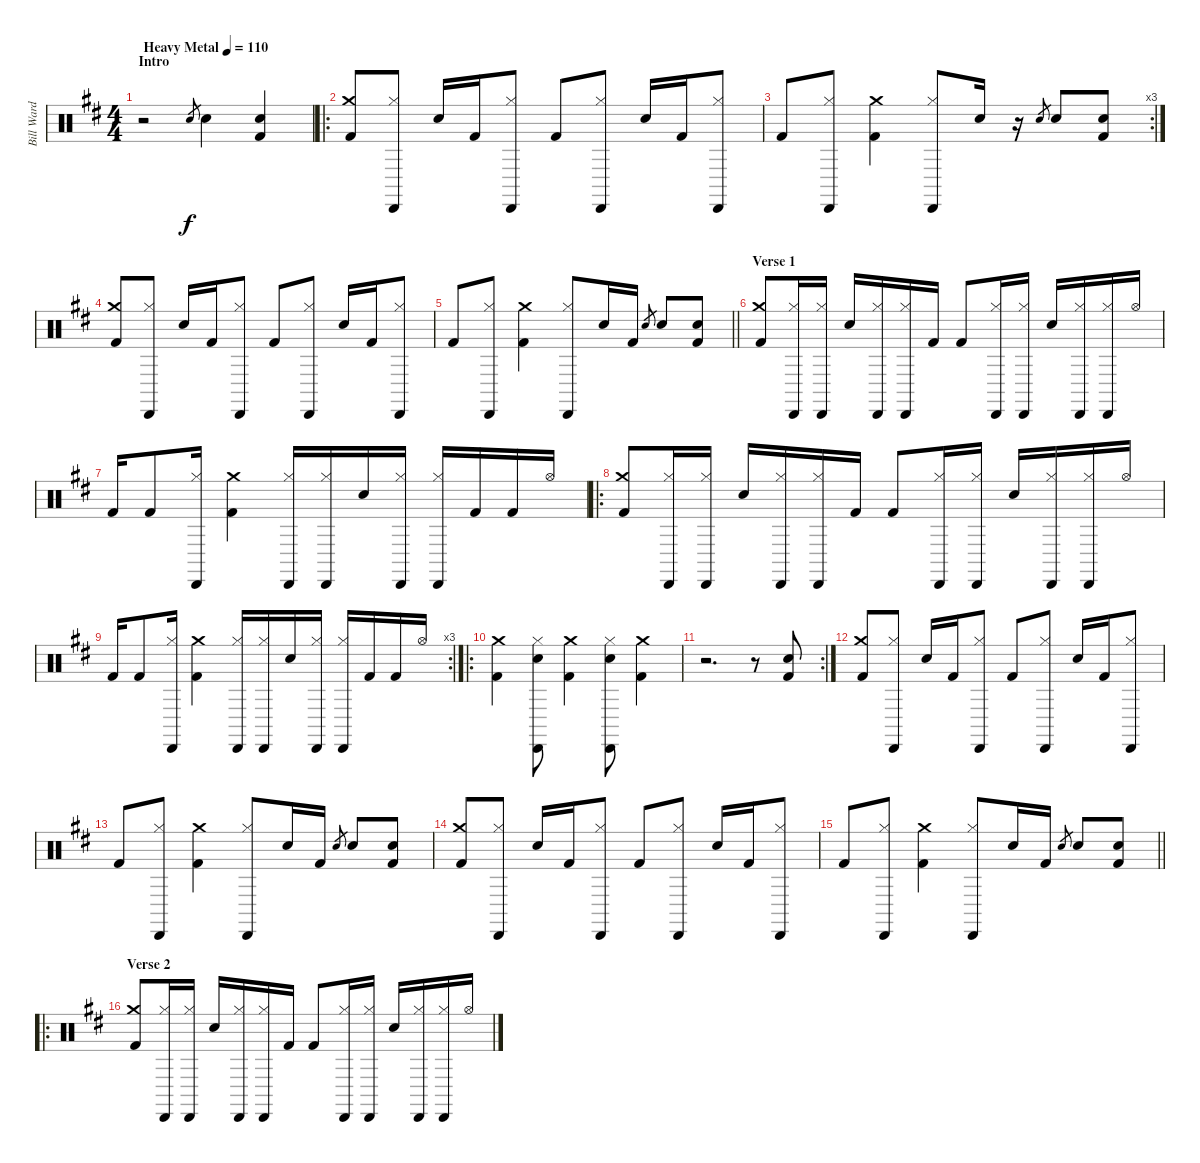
\track ("Bill Ward" "Bill Ward") {instrument percussion}
\staff {score}
\articulation defaults
\ts (4 4)
\section ("" "Intro")
\tempo (110 "Heavy Metal")
\clef neutral
\ks d
r.2{dy f} "Electric Snare (hit)".8{gr} "Electric Snare (hit)".4 ("Snare (hit) 2" "Kick (hit) 2").4 |
\ro
("Crash medium (hit)" "Kick (hit) 2").8 ("Cabasa (hit)" "Hi-Hat (closed)").8 "Snare (hit) 2".16 "Kick (hit) 2".16 ("Cabasa (hit)" "Hi-Hat (closed)").8 "Kick (hit) 2".8 ("Cabasa (hit)" "Hi-Hat (closed)").8 "Snare (hit) 2".16 "Kick (hit) 2".16 ("Cabasa (hit)" "Hi-Hat (closed)").8 |
\rc 3 "Kick (hit) 2".8
("Cabasa (hit)" "Hi-Hat (closed)").8 ("Crash medium (hit)" "Kick (hit) 2").4 ("Cabasa (hit)" "Hi-Hat (closed)").8 "Snare (hit) 2".16 r.16 "Electric Snare (hit)".8{gr} "Electric Snare (hit)".8 ("Snare (hit) 2" "Kick (hit) 2").8 |
("Crash medium (hit)" "Kick (hit) 2").8 ("Cabasa (hit)" "Hi-Hat (closed)").8 "Snare (hit) 2".16 "Kick (hit) 2".16 ("Cabasa (hit)" "Hi-Hat (closed)").8 "Kick (hit) 2".8 ("Cabasa (hit)" "Hi-Hat (closed)").8 "Snare (hit) 2".16 "Kick (hit) 2".16 ("Cabasa (hit)" "Hi-Hat (closed)").8 |
\barLineRight lightlight "Kick (hit) 2".8
("Cabasa (hit)" "Hi-Hat (closed)").8 ("Crash medium (hit)" "Kick (hit) 2").4 ("Cabasa (hit)" "Hi-Hat (closed)").8 "Snare (hit) 2".16 "Kick (hit) 2".16 "Electric Snare (hit)".8{gr} "Electric Snare (hit)".8 ("Snare (hit) 2" "Kick (hit) 2").8 |
\section ("" "Verse 1")
("Crash medium (hit)" "Kick (hit) 2").8 ("Cabasa (hit)" "Hi-Hat (closed)").16 ("Cabasa (hit)" "Hi-Hat (closed)").16 "Snare (hit) 2".16 ("Cabasa (hit)" "Hi-Hat (closed)").16 ("Cabasa (hit)" "Hi-Hat (closed)").16 "Kick (hit) 2".16 "Kick (hit) 2".8 ("Cabasa (hit)" "Hi-Hat (closed)").16 ("Cabasa (hit)" "Hi-Hat (closed)").16 "Snare (hit) 2".16 ("Cabasa (hit)" "Hi-Hat (closed)").16 ("Cabasa (hit)" "Hi-Hat (closed)").16 "Hi-Hat (open)".16 |
"Kick (hit) 2".16 "Kick (hit) 2".8 ("Cabasa (hit)" "Hi-Hat (closed)").16 ("Crash medium (hit)" "Kick (hit) 2").4 ("Cabasa (hit)" "Hi-Hat (closed)").16 ("Cabasa (hit)" "Hi-Hat (closed)").16 "Snare (hit) 2".16 ("Cabasa (hit)" "Hi-Hat (closed)").16 ("Cabasa (hit)" "Hi-Hat (closed)").16 "Kick (hit) 2".16 "Kick (hit) 2".16 "Hi-Hat (open)".16 |
\ro
("Crash medium (hit)" "Kick (hit) 2").8 ("Cabasa (hit)" "Hi-Hat (closed)").16 ("Cabasa (hit)" "Hi-Hat (closed)").16 "Snare (hit) 2".16 ("Cabasa (hit)" "Hi-Hat (closed)").16 ("Cabasa (hit)" "Hi-Hat (closed)").16 "Kick (hit) 2".16 "Kick (hit) 2".8 ("Cabasa (hit)" "Hi-Hat (closed)").16 ("Cabasa (hit)" "Hi-Hat (closed)").16 "Snare (hit) 2".16 ("Cabasa (hit)" "Hi-Hat (closed)").16 ("Cabasa (hit)" "Hi-Hat (closed)").16 "Hi-Hat (open)".16 |
\rc 3 "Kick (hit) 2".16 "Kick (hit) 2".8
("Cabasa (hit)" "Hi-Hat (closed)").16 ("Crash medium (hit)" "Kick (hit) 2").4 ("Cabasa (hit)" "Hi-Hat (closed)").16 ("Cabasa (hit)" "Hi-Hat (closed)").16 "Snare (hit) 2".16 ("Cabasa (hit)" "Hi-Hat (closed)").16 ("Cabasa (hit)" "Hi-Hat (closed)").16 "Kick (hit) 2".16 "Kick (hit) 2".16 "Hi-Hat (open)".16 |
\ro
("Crash medium (hit)" "Kick (hit) 2").4 ("Cabasa (hit)" "Hi-Hat (closed)" "Snare (hit) 2").8 ("Crash medium (hit)" "Kick (hit) 2").4 ("Cabasa (hit)" "Hi-Hat (closed)" "Snare (hit) 2").8 ("Crash medium (hit)" "Kick (hit) 2").4 |
\rc 2
r.2{d} r.8 ("Snare (hit) 2" "Kick (hit) 2").8 |
("Crash medium (hit)" "Kick (hit) 2").8 ("Cabasa (hit)" "Hi-Hat (closed)").8 "Snare (hit) 2".16 "Kick (hit) 2".16 ("Cabasa (hit)" "Hi-Hat (closed)").8 "Kick (hit) 2".8 ("Cabasa (hit)" "Hi-Hat (closed)").8 "Snare (hit) 2".16 "Kick (hit) 2".16 ("Cabasa (hit)" "Hi-Hat (closed)").8 |
"Kick (hit) 2".8 ("Cabasa (hit)" "Hi-Hat (closed)").8 ("Crash medium (hit)" "Kick (hit) 2").4 ("Cabasa (hit)" "Hi-Hat (closed)").8 "Snare (hit) 2".16 "Kick (hit) 2".16 "Electric Snare (hit)".8{gr} "Electric Snare (hit)".8 ("Snare (hit) 2" "Kick (hit) 2").8 |
("Crash medium (hit)" "Kick (hit) 2").8 ("Cabasa (hit)" "Hi-Hat (closed)").8 "Snare (hit) 2".16 "Kick (hit) 2".16 ("Cabasa (hit)" "Hi-Hat (closed)").8 "Kick (hit) 2".8 ("Cabasa (hit)" "Hi-Hat (closed)").8 "Snare (hit) 2".16 "Kick (hit) 2".16 ("Cabasa (hit)" "Hi-Hat (closed)").8 |
\barLineRight lightlight "Kick (hit) 2".8
("Cabasa (hit)" "Hi-Hat (closed)").8 ("Crash medium (hit)" "Kick (hit) 2").4 ("Cabasa (hit)" "Hi-Hat (closed)").8 "Snare (hit) 2".16 "Kick (hit) 2".16 "Electric Snare (hit)".8{gr} "Electric Snare (hit)".8 ("Snare (hit) 2" "Kick (hit) 2").8 |
\ro
\section ("" "Verse 2")
("Crash medium (hit)" "Kick (hit) 2").8 ("Cabasa (hit)" "Hi-Hat (closed)").16 ("Cabasa (hit)" "Hi-Hat (closed)").16 "Snare (hit) 2".16 ("Cabasa (hit)" "Hi-Hat (closed)").16 ("Cabasa (hit)" "Hi-Hat (closed)").16 "Kick (hit) 2".16 "Kick (hit) 2".8 ("Cabasa (hit)" "Hi-Hat (closed)").16 ("Cabasa (hit)" "Hi-Hat (closed)").16 "Snare (hit) 2".16 ("Cabasa (hit)" "Hi-Hat (closed)").16 ("Cabasa (hit)" "Hi-Hat (closed)").16 "Hi-Hat (open)".16
